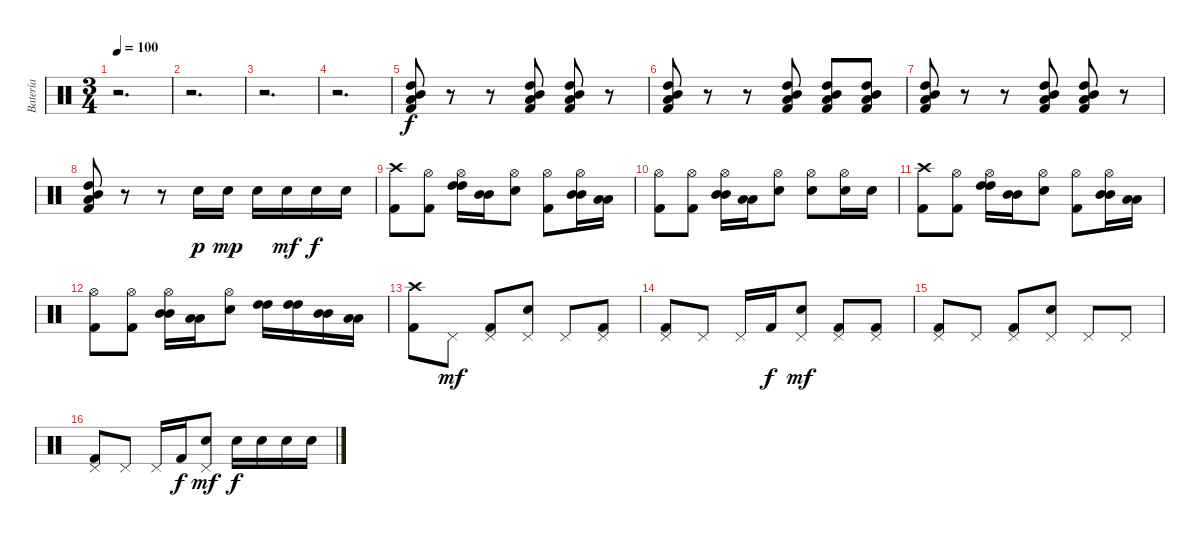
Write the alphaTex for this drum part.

\track ("Batería" "Batería") {instrument percussion}
\staff {score}
\articulation defaults
\ts (3 4)
\tempo 100
\clef neutral
\ks c
r.2{d dy f} |
r.2{d} |
r.2{d} |
r.2{d} |
("High Tom (hit)" "Mid Tom (hit)" "Low Tom (hit)" "Kick (hit) 2").8 r.8 r.8 ("High Tom (hit)" "Mid Tom (hit)" "Low Tom (hit)" "Kick (hit) 2").8 ("High Tom (hit)" "Mid Tom (hit)" "Low Tom (hit)" "Kick (hit) 2").8 r.8 |
("High Tom (hit)" "Mid Tom (hit)" "Low Tom (hit)" "Kick (hit) 2").8 r.8 r.8 ("High Tom (hit)" "Mid Tom (hit)" "Low Tom (hit)" "Kick (hit) 2").8 ("High Tom (hit)" "Mid Tom (hit)" "Low Tom (hit)" "Kick (hit) 2").8 ("High Tom (hit)" "Mid Tom (hit)" "Low Tom (hit)" "Kick (hit) 2").8 |
("High Tom (hit)" "Mid Tom (hit)" "Low Tom (hit)" "Kick (hit) 2").8 r.8 r.8 ("High Tom (hit)" "Mid Tom (hit)" "Low Tom (hit)" "Kick (hit) 2").8 ("High Tom (hit)" "Mid Tom (hit)" "Low Tom (hit)" "Kick (hit) 2").8 r.8 |
("High Tom (hit)" "Mid Tom (hit)" "Low Tom (hit)" "Kick (hit) 2").8 r.8 r.8 "Snare (hit) 2".16{dy p} "Snare (hit) 2".16{dy mp} "Snare (hit) 2".16 "Snare (hit) 2".16{dy mf} "Snare (hit) 2".16{dy f} "Snare (hit) 2".16 |
("Crash high (hit)" "Kick (hit) 2").8 ("Hi-Hat (open)" "Kick (hit) 2").8 ("Hi-Hat (open)" "High Tom (hit)" "High Tom (hit)").16 ("Mid Tom (hit)" "Mid Tom (hit)").16 ("Hi-Hat (open)" "Snare (hit) 2").8 ("Hi-Hat (open)" "Kick (hit) 2").8 ("Hi-Hat (open)" "Mid Tom (hit)" "Mid Tom (hit)").16 ("Low Tom (hit)" "Low Tom (hit)").16 |
("Hi-Hat (open)" "Kick (hit) 2").8 ("Hi-Hat (open)" "Kick (hit) 2").8 ("Hi-Hat (open)" "Mid Tom (hit)" "Mid Tom (hit)").16 ("Low Tom (hit)" "Low Tom (hit)").16 ("Hi-Hat (open)" "Snare (hit) 2").8 ("Hi-Hat (open)" "Snare (hit) 2").8 ("Hi-Hat (open)" "Snare (hit) 2").16 "Snare (hit) 2".16 |
("Crash high (hit)" "Kick (hit) 2").8 ("Hi-Hat (open)" "Kick (hit) 2").8 ("Hi-Hat (open)" "High Tom (hit)" "High Tom (hit)").16 ("Mid Tom (hit)" "Mid Tom (hit)").16 ("Hi-Hat (open)" "Snare (hit) 2").8 ("Hi-Hat (open)" "Kick (hit) 2").8 ("Hi-Hat (open)" "Mid Tom (hit)" "Mid Tom (hit)").16 ("Low Tom (hit)" "Low Tom (hit)").16 |
("Hi-Hat (open)" "Kick (hit) 2").8 ("Hi-Hat (open)" "Kick (hit) 2").8 ("Hi-Hat (open)" "Mid Tom (hit)" "Mid Tom (hit)").16 ("Low Tom (hit)" "Low Tom (hit)").16 ("Hi-Hat (open)" "Snare (hit) 2").8 ("High Tom (hit)" "High Tom (hit)").16 ("High Tom (hit)" "High Tom (hit)").16 ("Mid Tom (hit)" "Mid Tom (hit)").16 ("Low Tom (hit)" "Low Tom (hit)").16 |
("Crash high (hit)" "Kick (hit) 2").8 "Pedal Hi-Hat (hit)".8{dy mf} ("Pedal Hi-Hat (hit)" "Kick (hit) 2").8 ("Pedal Hi-Hat (hit)" "Snare (hit) 2").8 "Pedal Hi-Hat (hit)".8 ("Pedal Hi-Hat (hit)" "Kick (hit) 2").8 |
("Pedal Hi-Hat (hit)" "Kick (hit) 2").8 "Pedal Hi-Hat (hit)".8 "Pedal Hi-Hat (hit)".16 "Kick (hit) 2".16{dy f} ("Pedal Hi-Hat (hit)" "Snare (hit) 2").8{dy mf} ("Pedal Hi-Hat (hit)" "Kick (hit) 2").8 ("Pedal Hi-Hat (hit)" "Kick (hit) 2").8 |
("Pedal Hi-Hat (hit)" "Kick (hit) 2").8 "Pedal Hi-Hat (hit)".8 ("Pedal Hi-Hat (hit)" "Kick (hit) 2").8 ("Pedal Hi-Hat (hit)" "Snare (hit) 2").8 "Pedal Hi-Hat (hit)".8 "Pedal Hi-Hat (hit)".8 |
("Pedal Hi-Hat (hit)" "Kick (hit) 2").8 "Pedal Hi-Hat (hit)".8 "Pedal Hi-Hat (hit)".16 "Kick (hit) 2".16{dy f} ("Pedal Hi-Hat (hit)" "Snare (hit) 2").8{dy mf} "Snare (hit) 2".16{dy f} "Snare (hit) 2".16 "Snare (hit) 2".16 "Snare (hit) 2".16
